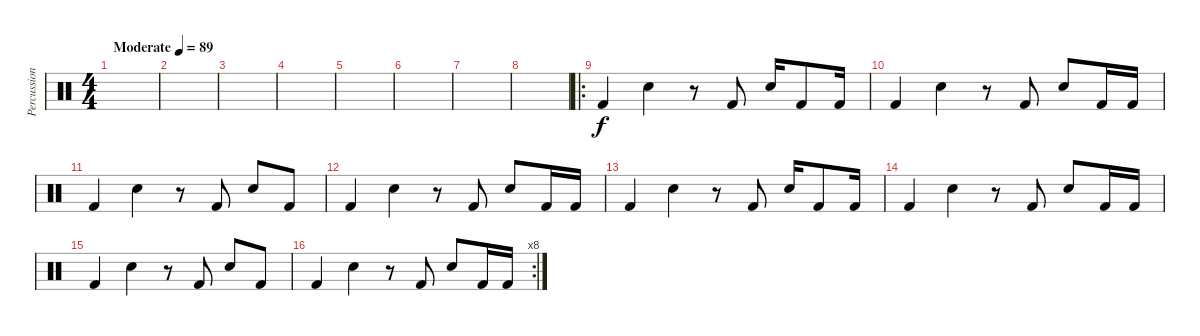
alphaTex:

\track ("Percussion" "Percussion") {instrument percussion}
\staff {score}
\articulation defaults
\ts (4 4)
\tempo (89 "Moderate")
\clef neutral
\ks c
|
|
|
|
|
|
|
|
\ro "Kick (hit) 2".4 "Snare (hit) 2".4
r.8 "Kick (hit) 2".8 "Snare (hit) 2".16 "Kick (hit) 2".8 "Kick (hit) 2".16 |
"Kick (hit) 2".4 "Snare (hit) 2".4 r.8 "Kick (hit) 2".8 "Snare (hit) 2".8 "Kick (hit) 2".16 "Kick (hit) 2".16 |
"Kick (hit) 2".4 "Snare (hit) 2".4 r.8 "Kick (hit) 2".8 "Snare (hit) 2".8 "Kick (hit) 2".8 |
"Kick (hit) 2".4 "Snare (hit) 2".4 r.8 "Kick (hit) 2".8 "Snare (hit) 2".8 "Kick (hit) 2".16 "Kick (hit) 2".16 |
"Kick (hit) 2".4 "Snare (hit) 2".4 r.8 "Kick (hit) 2".8 "Snare (hit) 2".16 "Kick (hit) 2".8 "Kick (hit) 2".16 |
"Kick (hit) 2".4 "Snare (hit) 2".4 r.8 "Kick (hit) 2".8 "Snare (hit) 2".8 "Kick (hit) 2".16 "Kick (hit) 2".16 |
"Kick (hit) 2".4 "Snare (hit) 2".4 r.8 "Kick (hit) 2".8 "Snare (hit) 2".8 "Kick (hit) 2".8 |
\rc 8 "Kick (hit) 2".4 "Snare (hit) 2".4
r.8 "Kick (hit) 2".8 "Snare (hit) 2".8 "Kick (hit) 2".16 "Kick (hit) 2".16
